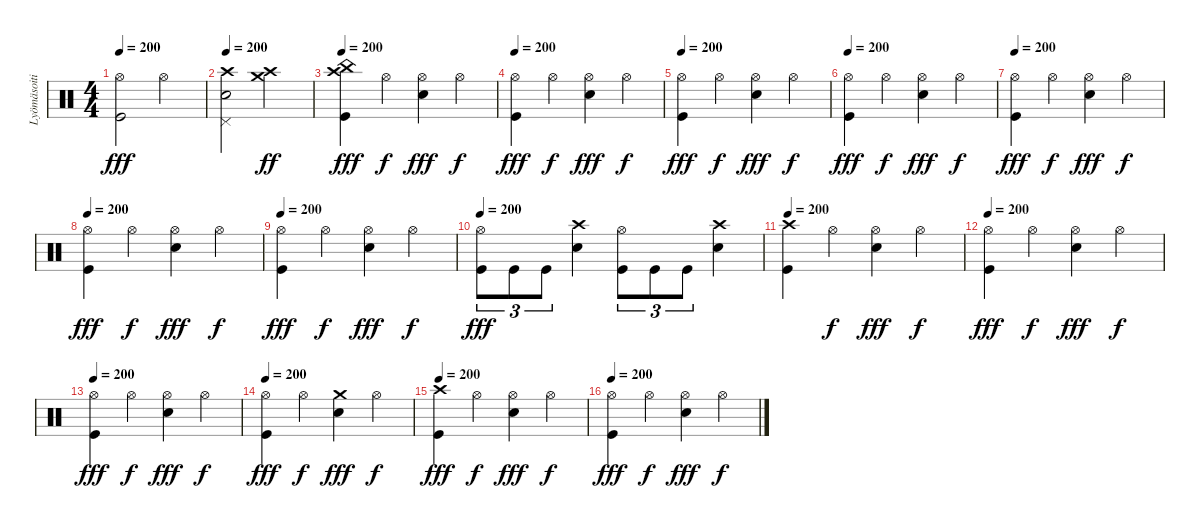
\track ("Lyömäsoitin" "Lyömäsoiti") {instrument percussion}
\staff {score}
\articulation defaults
\ts (4 4)
\tempo 200
\clef neutral
\ks c
("Hi-Hat (open)" "Kick (hit)").2{dy fff} "Hi-Hat (open)".2 |
\tempo 200
("Crash high (hit)" "Pedal Hi-Hat (hit)" "Electric Snare (hit)").2 ("Crash medium (hit)" "Crash high (hit)").2{dy ff} |
\tempo 200
("Crash high (hit)" "China (hit)" "Kick (hit)").4{dy fff} "Hi-Hat (open)".4{dy f} ("Hi-Hat (open)" "Electric Snare (hit)").4{dy fff} "Hi-Hat (open)".4{dy f} |
\tempo 200
("Hi-Hat (open)" "Kick (hit)").4{dy fff} "Hi-Hat (open)".4{dy f} ("Hi-Hat (open)" "Electric Snare (hit)").4{dy fff} "Hi-Hat (open)".4{dy f} |
\tempo 200
("Hi-Hat (open)" "Kick (hit)").4{dy fff} "Hi-Hat (open)".4{dy f} ("Hi-Hat (open)" "Electric Snare (hit)").4{dy fff} "Hi-Hat (open)".4{dy f} |
\tempo 200
("Hi-Hat (open)" "Kick (hit)").4{dy fff} "Hi-Hat (open)".4{dy f} ("Hi-Hat (open)" "Electric Snare (hit)").4{dy fff} "Hi-Hat (open)".4{dy f} |
\tempo 200
("Hi-Hat (open)" "Kick (hit)").4{dy fff} "Hi-Hat (open)".4{dy f} ("Hi-Hat (open)" "Electric Snare (hit)").4{dy fff} "Hi-Hat (open)".4{dy f} |
\tempo 200
("Hi-Hat (open)" "Kick (hit)").4{dy fff} "Hi-Hat (open)".4{dy f} ("Hi-Hat (open)" "Electric Snare (hit)").4{dy fff} "Hi-Hat (open)".4{dy f} |
\tempo 200
("Hi-Hat (open)" "Kick (hit)").4{dy fff} "Hi-Hat (open)".4{dy f} ("Hi-Hat (open)" "Electric Snare (hit)").4{dy fff} "Hi-Hat (open)".4{dy f} |
\tempo 200
("Hi-Hat (open)" "Kick (hit)").8{tu (3 2) dy fff} "Kick (hit)".8{tu (3 2)} "Kick (hit)".8{tu (3 2)} ("Crash high (hit)" "Electric Snare (hit)").4 ("Hi-Hat (open)" "Kick (hit)").8{tu (3 2)} "Kick (hit)".8{tu (3 2)} "Kick (hit)".8{tu (3 2)} ("Crash high (hit)" "Electric Snare (hit)").4 |
\tempo 200
("Crash high (hit)" "Kick (hit)").4 "Hi-Hat (open)".4{dy f} ("Hi-Hat (open)" "Electric Snare (hit)").4{dy fff} "Hi-Hat (open)".4{dy f} |
\tempo 200
("Hi-Hat (open)" "Kick (hit)").4{dy fff} "Hi-Hat (open)".4{dy f} ("Hi-Hat (open)" "Electric Snare (hit)").4{dy fff} "Hi-Hat (open)".4{dy f} |
\tempo 200
("Hi-Hat (open)" "Kick (hit)").4{dy fff} "Hi-Hat (open)".4{dy f} ("Hi-Hat (open)" "Electric Snare (hit)").4{dy fff} "Hi-Hat (open)".4{dy f} |
\tempo 200
("Hi-Hat (open)" "Kick (hit)").4{dy fff} "Hi-Hat (open)".4{dy f} ("Crash medium (hit)" "Electric Snare (hit)").4{dy fff} "Hi-Hat (open)".4{dy f} |
\tempo 200
("Crash high (hit)" "Kick (hit)").4{dy fff} "Hi-Hat (open)".4{dy f} ("Hi-Hat (open)" "Electric Snare (hit)").4{dy fff} "Hi-Hat (open)".4{dy f} |
\tempo 200
("Hi-Hat (open)" "Kick (hit)").4{dy fff} "Hi-Hat (open)".4{dy f} ("Hi-Hat (open)" "Electric Snare (hit)").4{dy fff} "Hi-Hat (open)".4{dy f}
